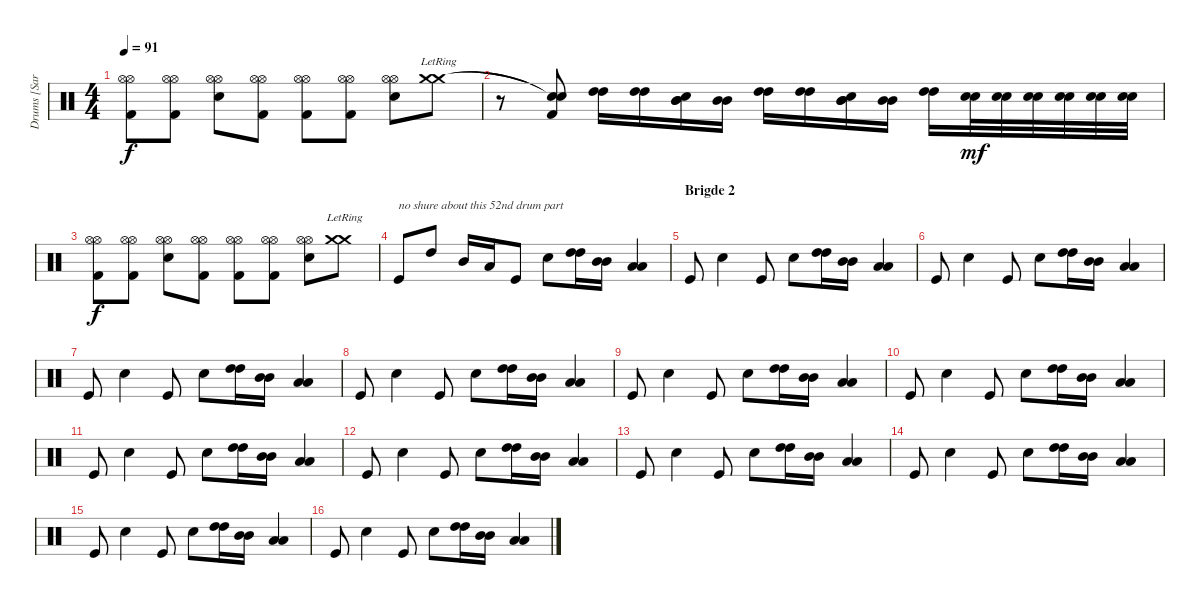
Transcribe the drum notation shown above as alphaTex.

\track ("Drums [Sara Lee Lucas]" "Drums [Sar") {instrument percussion}
\staff {score}
\articulation defaults
\ts (4 4)
\tempo 91
\clef neutral
\ks c
("Hi-Hat (open)" "Hi-Hat (open)" "Kick (hit) 2").8{dy f} ("Hi-Hat (open)" "Hi-Hat (open)" "Kick (hit) 2").8 ("Hi-Hat (open)" "Hi-Hat (open)" "Snare (hit) 2").8 ("Hi-Hat (open)" "Hi-Hat (open)" "Kick (hit) 2").8 ("Hi-Hat (open)" "Hi-Hat (open)" "Kick (hit) 2").8 ("Hi-Hat (open)" "Hi-Hat (open)" "Kick (hit) 2").8 ("Hi-Hat (open)" "Hi-Hat (open)" "Snare (hit) 2").8 ("Crash medium (hit)"{lr} "Crash medium (hit)"{lr}).8 |
r.8 ("Snare (hit)"{t} "Snare (hit)"{t} "Kick (hit) 2").8 ("High Tom (hit)" "High Tom (hit)").16 ("High Tom (hit)" "High Tom (hit)").16 ("Mid Tom (hit)" "Mid Tom (hit)" "Snare (hit) 2").16 ("Mid Tom (hit)" "Mid Tom (hit)").16 ("High Tom (hit)" "High Tom (hit)").16 ("High Tom (hit)" "High Tom (hit)").16 ("Mid Tom (hit)" "Mid Tom (hit)" "Snare (hit) 2").16 ("Mid Tom (hit)" "Mid Tom (hit)").16 ("High Tom (hit)" "High Tom (hit)").16 ("Electric Snare (hit)" "Electric Snare (hit)").32{dy mf} ("Electric Snare (hit)" "Electric Snare (hit)").32 ("Electric Snare (hit)" "Electric Snare (hit)").32 ("Electric Snare (hit)" "Electric Snare (hit)").32 ("Electric Snare (hit)" "Electric Snare (hit)").32 ("Electric Snare (hit)" "Electric Snare (hit)").32 |
("Hi-Hat (open)" "Hi-Hat (open)" "Kick (hit) 2").8{dy f} ("Hi-Hat (open)" "Hi-Hat (open)" "Kick (hit) 2").8 ("Hi-Hat (open)" "Hi-Hat (open)" "Snare (hit) 2").8 ("Hi-Hat (open)" "Hi-Hat (open)" "Kick (hit) 2").8 ("Hi-Hat (open)" "Hi-Hat (open)" "Kick (hit) 2").8 ("Hi-Hat (open)" "Hi-Hat (open)" "Kick (hit) 2").8 ("Hi-Hat (open)" "Hi-Hat (open)" "Snare (hit) 2").8 ("Crash medium (hit)"{lr} "Crash medium (hit)"{lr}).8 |
"Kick (hit)".8{txt "no shure about this 52nd drum part"} "High Tom (hit)".8 "Mid Tom (hit)".16 "Low Tom (hit)".16 "Kick (hit)".8 "Snare (hit) 2".8 ("High Tom (hit)" "High Tom (hit)").16 ("Mid Tom (hit)" "Mid Tom (hit)").16 ("Low Tom (hit)" "Low Tom (hit)").4 |
\section ("" "Brigde 2")
"Kick (hit)".8 "Snare (hit) 2".4 "Kick (hit)".8 "Snare (hit) 2".8 ("High Tom (hit)" "High Tom (hit)").16 ("Mid Tom (hit)" "Mid Tom (hit)").16 ("Low Tom (hit)" "Low Tom (hit)").4 |
"Kick (hit)".8 "Snare (hit) 2".4 "Kick (hit)".8 "Snare (hit) 2".8 ("High Tom (hit)" "High Tom (hit)").16 ("Mid Tom (hit)" "Mid Tom (hit)").16 ("Low Tom (hit)" "Low Tom (hit)").4 |
"Kick (hit)".8 "Snare (hit) 2".4 "Kick (hit)".8 "Snare (hit) 2".8 ("High Tom (hit)" "High Tom (hit)").16 ("Mid Tom (hit)" "Mid Tom (hit)").16 ("Low Tom (hit)" "Low Tom (hit)").4 |
"Kick (hit)".8 "Snare (hit) 2".4 "Kick (hit)".8 "Snare (hit) 2".8 ("High Tom (hit)" "High Tom (hit)").16 ("Mid Tom (hit)" "Mid Tom (hit)").16 ("Low Tom (hit)" "Low Tom (hit)").4 |
"Kick (hit)".8 "Snare (hit) 2".4 "Kick (hit)".8 "Snare (hit) 2".8 ("High Tom (hit)" "High Tom (hit)").16 ("Mid Tom (hit)" "Mid Tom (hit)").16 ("Low Tom (hit)" "Low Tom (hit)").4 |
"Kick (hit)".8 "Snare (hit) 2".4 "Kick (hit)".8 "Snare (hit) 2".8 ("High Tom (hit)" "High Tom (hit)").16 ("Mid Tom (hit)" "Mid Tom (hit)").16 ("Low Tom (hit)" "Low Tom (hit)").4 |
"Kick (hit)".8 "Snare (hit) 2".4 "Kick (hit)".8 "Snare (hit) 2".8 ("High Tom (hit)" "High Tom (hit)").16 ("Mid Tom (hit)" "Mid Tom (hit)").16 ("Low Tom (hit)" "Low Tom (hit)").4 |
"Kick (hit)".8 "Snare (hit) 2".4 "Kick (hit)".8 "Snare (hit) 2".8 ("High Tom (hit)" "High Tom (hit)").16 ("Mid Tom (hit)" "Mid Tom (hit)").16 ("Low Tom (hit)" "Low Tom (hit)").4 |
"Kick (hit)".8 "Snare (hit) 2".4 "Kick (hit)".8 "Snare (hit) 2".8 ("High Tom (hit)" "High Tom (hit)").16 ("Mid Tom (hit)" "Mid Tom (hit)").16 ("Low Tom (hit)" "Low Tom (hit)").4 |
"Kick (hit)".8 "Snare (hit) 2".4 "Kick (hit)".8 "Snare (hit) 2".8 ("High Tom (hit)" "High Tom (hit)").16 ("Mid Tom (hit)" "Mid Tom (hit)").16 ("Low Tom (hit)" "Low Tom (hit)").4 |
"Kick (hit)".8 "Snare (hit) 2".4 "Kick (hit)".8 "Snare (hit) 2".8 ("High Tom (hit)" "High Tom (hit)").16 ("Mid Tom (hit)" "Mid Tom (hit)").16 ("Low Tom (hit)" "Low Tom (hit)").4 |
"Kick (hit)".8 "Snare (hit) 2".4 "Kick (hit)".8 "Snare (hit) 2".8 ("High Tom (hit)" "High Tom (hit)").16 ("Mid Tom (hit)" "Mid Tom (hit)").16 ("Low Tom (hit)" "Low Tom (hit)").4
